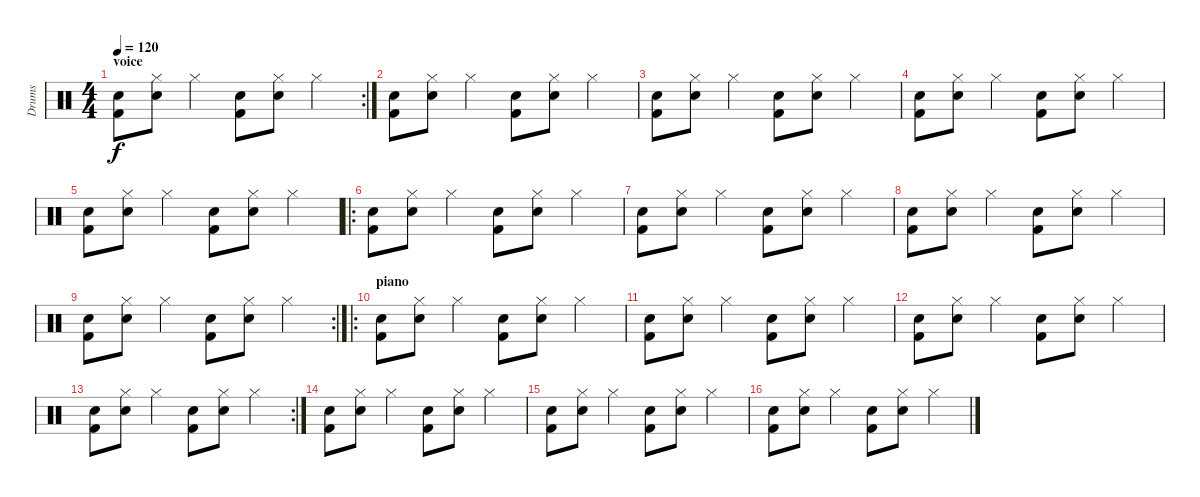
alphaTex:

\track ("Drums" "Drums") {instrument percussion}
\staff {score}
\articulation defaults
\rc 2
\ts (4 4)
\section ("" "voice")
\tempo 120
\clef neutral
\ks c
("Kick (hit) 2" "Snare (hit) 2").8{dy f} ("Hi-Hat (closed)" "Snare (hit) 2").8 "Hi-Hat (closed)".4 ("Kick (hit) 2" "Snare (hit) 2").8 ("Hi-Hat (closed)" "Snare (hit) 2").8 "Hi-Hat (closed)".4 |
("Kick (hit) 2" "Snare (hit) 2").8 ("Hi-Hat (closed)" "Snare (hit) 2").8 "Hi-Hat (closed)".4 ("Kick (hit) 2" "Snare (hit) 2").8 ("Hi-Hat (closed)" "Snare (hit) 2").8 "Hi-Hat (closed)".4 |
("Kick (hit) 2" "Snare (hit) 2").8 ("Hi-Hat (closed)" "Snare (hit) 2").8 "Hi-Hat (closed)".4 ("Kick (hit) 2" "Snare (hit) 2").8 ("Hi-Hat (closed)" "Snare (hit) 2").8 "Hi-Hat (closed)".4 |
("Kick (hit) 2" "Snare (hit) 2").8 ("Hi-Hat (closed)" "Snare (hit) 2").8 "Hi-Hat (closed)".4 ("Kick (hit) 2" "Snare (hit) 2").8 ("Hi-Hat (closed)" "Snare (hit) 2").8 "Hi-Hat (closed)".4 |
("Kick (hit) 2" "Snare (hit) 2").8 ("Hi-Hat (closed)" "Snare (hit) 2").8 "Hi-Hat (closed)".4 ("Kick (hit) 2" "Snare (hit) 2").8 ("Hi-Hat (closed)" "Snare (hit) 2").8 "Hi-Hat (closed)".4 |
\ro
("Kick (hit) 2" "Snare (hit) 2").8 ("Hi-Hat (closed)" "Snare (hit) 2").8 "Hi-Hat (closed)".4 ("Kick (hit) 2" "Snare (hit) 2").8 ("Hi-Hat (closed)" "Snare (hit) 2").8 "Hi-Hat (closed)".4 |
("Kick (hit) 2" "Snare (hit) 2").8 ("Hi-Hat (closed)" "Snare (hit) 2").8 "Hi-Hat (closed)".4 ("Kick (hit) 2" "Snare (hit) 2").8 ("Hi-Hat (closed)" "Snare (hit) 2").8 "Hi-Hat (closed)".4 |
("Kick (hit) 2" "Snare (hit) 2").8 ("Hi-Hat (closed)" "Snare (hit) 2").8 "Hi-Hat (closed)".4 ("Kick (hit) 2" "Snare (hit) 2").8 ("Hi-Hat (closed)" "Snare (hit) 2").8 "Hi-Hat (closed)".4 |
\rc 2
("Kick (hit) 2" "Snare (hit) 2").8 ("Hi-Hat (closed)" "Snare (hit) 2").8 "Hi-Hat (closed)".4 ("Kick (hit) 2" "Snare (hit) 2").8 ("Hi-Hat (closed)" "Snare (hit) 2").8 "Hi-Hat (closed)".4 |
\ro
\section ("" "piano")
("Kick (hit) 2" "Snare (hit) 2").8 ("Hi-Hat (closed)" "Snare (hit) 2").8 "Hi-Hat (closed)".4 ("Kick (hit) 2" "Snare (hit) 2").8 ("Hi-Hat (closed)" "Snare (hit) 2").8 "Hi-Hat (closed)".4 |
("Kick (hit) 2" "Snare (hit) 2").8 ("Hi-Hat (closed)" "Snare (hit) 2").8 "Hi-Hat (closed)".4 ("Kick (hit) 2" "Snare (hit) 2").8 ("Hi-Hat (closed)" "Snare (hit) 2").8 "Hi-Hat (closed)".4 |
("Kick (hit) 2" "Snare (hit) 2").8 ("Hi-Hat (closed)" "Snare (hit) 2").8 "Hi-Hat (closed)".4 ("Kick (hit) 2" "Snare (hit) 2").8 ("Hi-Hat (closed)" "Snare (hit) 2").8 "Hi-Hat (closed)".4 |
\rc 2
("Kick (hit) 2" "Snare (hit) 2").8 ("Hi-Hat (closed)" "Snare (hit) 2").8 "Hi-Hat (closed)".4 ("Kick (hit) 2" "Snare (hit) 2").8 ("Hi-Hat (closed)" "Snare (hit) 2").8 "Hi-Hat (closed)".4 |
("Kick (hit) 2" "Snare (hit) 2").8 ("Hi-Hat (closed)" "Snare (hit) 2").8 "Hi-Hat (closed)".4 ("Kick (hit) 2" "Snare (hit) 2").8 ("Hi-Hat (closed)" "Snare (hit) 2").8 "Hi-Hat (closed)".4 |
("Kick (hit) 2" "Snare (hit) 2").8 ("Hi-Hat (closed)" "Snare (hit) 2").8 "Hi-Hat (closed)".4 ("Kick (hit) 2" "Snare (hit) 2").8 ("Hi-Hat (closed)" "Snare (hit) 2").8 "Hi-Hat (closed)".4 |
("Kick (hit) 2" "Snare (hit) 2").8 ("Hi-Hat (closed)" "Snare (hit) 2").8 "Hi-Hat (closed)".4 ("Kick (hit) 2" "Snare (hit) 2").8 ("Hi-Hat (closed)" "Snare (hit) 2").8 "Hi-Hat (closed)".4
